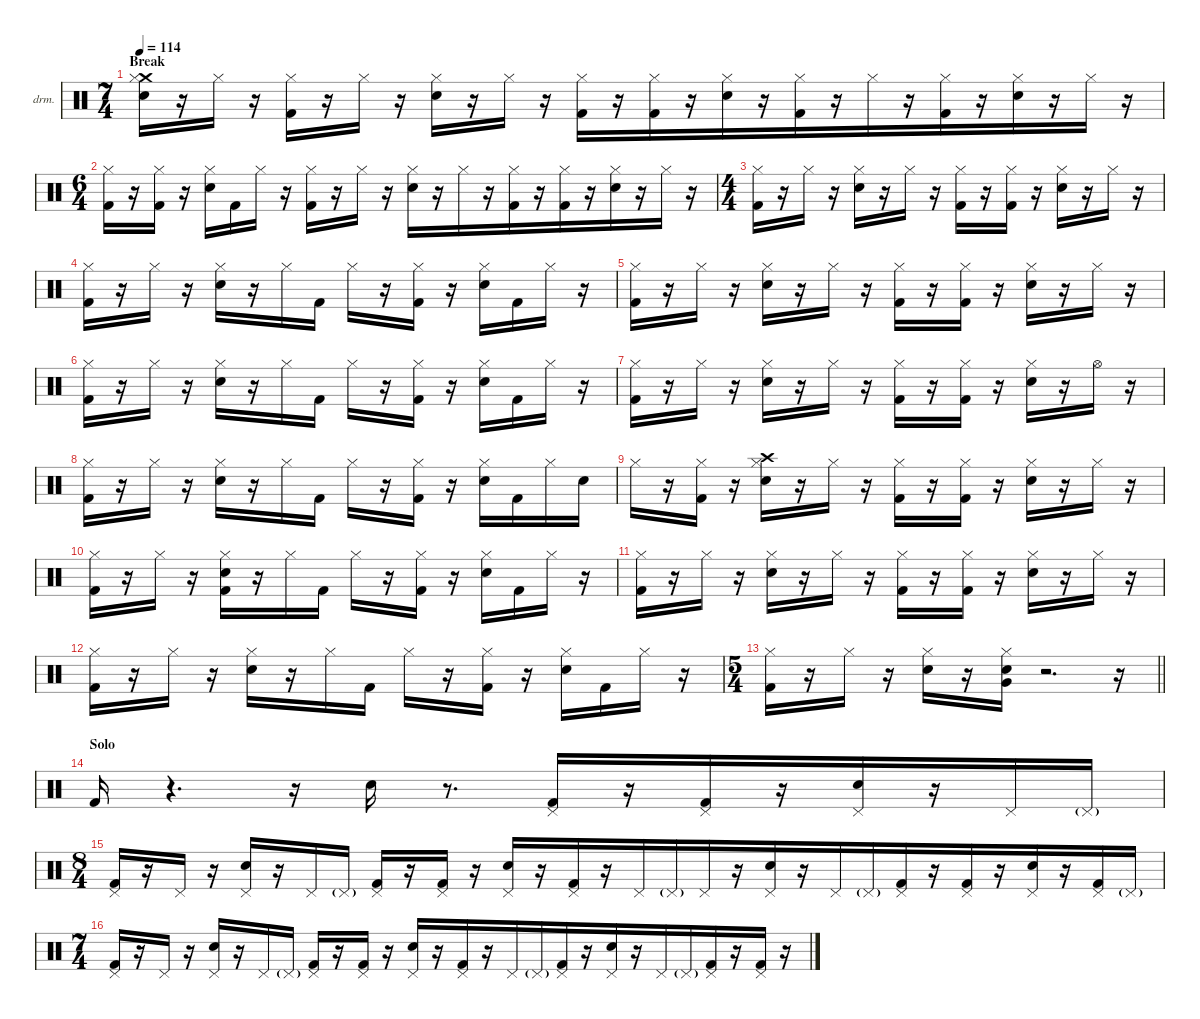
\defaultSystemsLayout 4
\hideDynamics
\bracketExtendMode nobrackets
\firstSystemTrackNameOrientation horizontal
\otherSystemsTrackNameOrientation horizontal
\track ("Drums" "drm.") {instrument percussion}
\staff {score}
\articulation defaults
\ts (7 4)
\beaming (8 2 2 2 8)
\section ("" "Break")
\tempo 114
\clef neutral
\ks c
("Crash medium (hit)" "Hi-Hat (closed)" "Snare (hit) 2").16{dy f beam Down} r.16{beam Down} "Hi-Hat (closed)".16{beam Down} r.16{beam Down} ("Hi-Hat (closed)" "Kick (hit) 2").16{beam Down} r.16{beam Down} "Hi-Hat (closed)".16{beam Down} r.16{beam Down} ("Hi-Hat (closed)" "Snare (hit) 2").16{beam Down} r.16{beam Down} "Hi-Hat (closed)".16{beam Down} r.16{beam Down} ("Hi-Hat (closed)" "Kick (hit) 2").16{beam Down} r.16{beam Down} ("Hi-Hat (closed)" "Kick (hit) 2").16{beam Down} r.16{beam Down} ("Hi-Hat (closed)" "Snare (hit) 2").16{beam Down} r.16{beam Down} ("Hi-Hat (closed)" "Kick (hit) 2").16{beam Down} r.16{beam Down} "Hi-Hat (closed)".16{beam Down} r.16{beam Down} ("Hi-Hat (closed)" "Kick (hit) 2").16{beam Down} r.16{beam Down} ("Hi-Hat (closed)" "Snare (hit) 2").16{beam Down} r.16{beam Down} "Hi-Hat (closed)".16{beam Down} r.16{beam Down} |
\ts (6 4)
\beaming (8 2 2 2 6)
("Hi-Hat (closed)" "Kick (hit) 2").16{beam Down} r.16{beam Down} ("Hi-Hat (closed)" "Kick (hit) 2").16{beam Down} r.16{beam Down} ("Hi-Hat (closed)" "Snare (hit) 2").16{beam Down} "Kick (hit) 2".16{beam Down} "Hi-Hat (closed)".16{beam Down} r.16{beam Down} ("Hi-Hat (closed)" "Kick (hit) 2").16{beam Down} r.16{beam Down} "Hi-Hat (closed)".16{beam Down} r.16{beam Down} ("Hi-Hat (closed)" "Snare (hit) 2").16{beam Down} r.16{beam Down} "Hi-Hat (closed)".16{beam Down} r.16{beam Down} ("Hi-Hat (closed)" "Kick (hit) 2").16{beam Down} r.16{beam Down} ("Hi-Hat (closed)" "Kick (hit) 2").16{beam Down} r.16{beam Down} ("Hi-Hat (closed)" "Snare (hit) 2").16{beam Down} r.16{beam Down} "Hi-Hat (closed)".16{beam Down} r.16{beam Down} |
\ts (4 4)
\beaming (8 2 2 2 2)
("Hi-Hat (closed)" "Kick (hit) 2").16{beam Down} r.16{beam Down} "Hi-Hat (closed)".16{beam Down} r.16{beam Down} ("Hi-Hat (closed)" "Snare (hit) 2").16{beam Down} r.16{beam Down} "Hi-Hat (closed)".16{beam Down} r.16{beam Down} ("Hi-Hat (closed)" "Kick (hit) 2").16{beam Down} r.16{beam Down} ("Hi-Hat (closed)" "Kick (hit) 2").16{beam Down} r.16{beam Down} ("Hi-Hat (closed)" "Snare (hit) 2").16{beam Down} r.16{beam Down} "Hi-Hat (closed)".16{beam Down} r.16{beam Down} |
("Hi-Hat (closed)" "Kick (hit) 2").16{beam Down} r.16{beam Down} "Hi-Hat (closed)".16{beam Down} r.16{beam Down} ("Hi-Hat (closed)" "Snare (hit) 2").16{beam Down} r.16{beam Down} "Hi-Hat (closed)".16{beam Down} "Kick (hit) 2".16{beam Down} "Hi-Hat (closed)".16{beam Down} r.16{beam Down} ("Hi-Hat (closed)" "Kick (hit) 2").16{beam Down} r.16{beam Down} ("Hi-Hat (closed)" "Snare (hit) 2").16{beam Down} "Kick (hit) 2".16{beam Down} "Hi-Hat (closed)".16{beam Down} r.16{beam Down} |
("Hi-Hat (closed)" "Kick (hit) 2").16{beam Down} r.16{beam Down} "Hi-Hat (closed)".16{beam Down} r.16{beam Down} ("Hi-Hat (closed)" "Snare (hit) 2").16{beam Down} r.16{beam Down} "Hi-Hat (closed)".16{beam Down} r.16{beam Down} ("Hi-Hat (closed)" "Kick (hit) 2").16{beam Down} r.16{beam Down} ("Hi-Hat (closed)" "Kick (hit) 2").16{beam Down} r.16{beam Down} ("Hi-Hat (closed)" "Snare (hit) 2").16{beam Down} r.16{beam Down} "Hi-Hat (closed)".16{beam Down} r.16{beam Down} |
("Hi-Hat (closed)" "Kick (hit) 2").16{beam Down} r.16{beam Down} "Hi-Hat (closed)".16{beam Down} r.16{beam Down} ("Hi-Hat (closed)" "Snare (hit) 2").16{beam Down} r.16{beam Down} "Hi-Hat (closed)".16{beam Down} "Kick (hit) 2".16{beam Down} "Hi-Hat (closed)".16{beam Down} r.16{beam Down} ("Hi-Hat (closed)" "Kick (hit) 2").16{beam Down} r.16{beam Down} ("Hi-Hat (closed)" "Snare (hit) 2").16{beam Down} "Kick (hit) 2".16{beam Down} "Hi-Hat (closed)".16{beam Down} r.16{beam Down} |
("Hi-Hat (closed)" "Kick (hit) 2").16{beam Down} r.16{beam Down} "Hi-Hat (closed)".16{beam Down} r.16{beam Down} ("Hi-Hat (closed)" "Snare (hit) 2").16{beam Down} r.16{beam Down} "Hi-Hat (closed)".16{beam Down} r.16{beam Down} ("Hi-Hat (closed)" "Kick (hit) 2").16{beam Down} r.16{beam Down} ("Hi-Hat (closed)" "Kick (hit) 2").16{beam Down} r.16{beam Down} ("Hi-Hat (closed)" "Snare (hit) 2").16{beam Down} r.16{beam Down} "Hi-Hat (open)".16{beam Down} r.16{beam Down} |
("Hi-Hat (closed)" "Kick (hit) 2").16{beam Down} r.16{beam Down} "Hi-Hat (closed)".16{beam Down} r.16{beam Down} ("Hi-Hat (closed)" "Snare (hit) 2").16{beam Down} r.16{beam Down} "Hi-Hat (closed)".16{beam Down} "Kick (hit) 2".16{beam Down} "Hi-Hat (closed)".16{beam Down} r.16{beam Down} ("Hi-Hat (closed)" "Kick (hit) 2").16{beam Down} r.16{beam Down} ("Hi-Hat (closed)" "Snare (hit) 2").16{beam Down} "Kick (hit) 2".16{beam Down} "Hi-Hat (closed)".16{beam Down} "Snare (hit) 2".16{beam Down} |
"Hi-Hat (closed)".16{beam Down} r.16{beam Down} ("Hi-Hat (closed)" "Kick (hit) 2").16{beam Down} r.16{beam Down} ("Crash high (hit)" "Hi-Hat (closed)" "Snare (hit) 2").16{beam Down} r.16{beam Down} "Hi-Hat (closed)".16{beam Down} r.16{beam Down} ("Hi-Hat (closed)" "Kick (hit) 2").16{beam Down} r.16{beam Down} ("Hi-Hat (closed)" "Kick (hit) 2").16{beam Down} r.16{beam Down} ("Hi-Hat (closed)" "Snare (hit) 2").16{beam Down} r.16{beam Down} "Hi-Hat (closed)".16{beam Down} r.16{beam Down} |
("Hi-Hat (closed)" "Kick (hit) 2").16{beam Down} r.16{beam Down} "Hi-Hat (closed)".16{beam Down} r.16{beam Down} ("Hi-Hat (closed)" "Snare (hit) 2" "Kick (hit) 2").16{beam Down} r.16{beam Down} "Hi-Hat (closed)".16{beam Down} "Kick (hit) 2".16{beam Down} "Hi-Hat (closed)".16{beam Down} r.16{beam Down} ("Hi-Hat (closed)" "Kick (hit) 2").16{beam Down} r.16{beam Down} ("Hi-Hat (closed)" "Snare (hit) 2").16{beam Down} "Kick (hit) 2".16{beam Down} "Hi-Hat (closed)".16{beam Down} r.16{beam Down} |
("Hi-Hat (closed)" "Kick (hit) 2").16{beam Down} r.16{beam Down} "Hi-Hat (closed)".16{beam Down} r.16{beam Down} ("Hi-Hat (closed)" "Snare (hit) 2").16{beam Down} r.16{beam Down} "Hi-Hat (closed)".16{beam Down} r.16{beam Down} ("Hi-Hat (closed)" "Kick (hit) 2").16{beam Down} r.16{beam Down} ("Hi-Hat (closed)" "Kick (hit) 2").16{beam Down} r.16{beam Down} ("Hi-Hat (closed)" "Snare (hit) 2").16{beam Down} r.16{beam Down} "Hi-Hat (closed)".16{beam Down} r.16{beam Down} |
("Hi-Hat (closed)" "Kick (hit) 2").16{beam Down} r.16{beam Down} "Hi-Hat (closed)".16{beam Down} r.16{beam Down} ("Hi-Hat (closed)" "Snare (hit) 2").16{beam Down} r.16{beam Down} "Hi-Hat (closed)".16{beam Down} "Kick (hit) 2".16{beam Down} "Hi-Hat (closed)".16{beam Down} r.16{beam Down} ("Hi-Hat (closed)" "Kick (hit) 2").16{beam Down} r.16{beam Down} ("Hi-Hat (closed)" "Snare (hit) 2").16{beam Down} "Kick (hit) 2".16{beam Down} "Hi-Hat (closed)".16{beam Down} r.16{beam Down} |
\ts (5 4)
\beaming (8 2 2 2 4)
\barLineRight lightlight
("Hi-Hat (closed)" "Kick (hit) 2").16{beam Down} r.16{beam Down} "Hi-Hat (closed)".16{beam Down} r.16{beam Down} ("Hi-Hat (closed)" "Snare (hit) 2").16{beam Down} r.16{beam Down} ("Hi-Hat (closed)" "Very Low Tom (hit)" "Snare (hit) 2").16{beam Down} r.2{d beam Down} r.16{beam Down} |
\section ("" "Solo")
"Kick (hit) 2".16{beam Up} r.4{d beam Up} r.16{beam Up} "Snare (hit) 2".16{beam Down} r.8{d beam Down} ("Pedal Hi-Hat (hit)" "Kick (hit) 2").16{beam Up} r.16{beam Up} ("Pedal Hi-Hat (hit)" "Kick (hit) 2").16{beam Up} r.16{beam Up} ("Pedal Hi-Hat (hit)" "Snare (hit) 2").16{beam Up} r.16{beam Up} "Pedal Hi-Hat (hit)".16{beam Up} "Pedal Hi-Hat (hit)"{g}.16{dy mf beam Up} |
\ts (8 4)
\beaming (8 2 2 2 10)
("Pedal Hi-Hat (hit)" "Kick (hit) 2").16{dy f beam Up} r.16{beam Up} "Pedal Hi-Hat (hit)".16{beam Up} r.16{beam Up} ("Pedal Hi-Hat (hit)" "Snare (hit) 2").16{beam Up} r.16{beam Up} "Pedal Hi-Hat (hit)".16{beam Up} "Pedal Hi-Hat (hit)"{g}.16{dy mf beam Up} ("Pedal Hi-Hat (hit)" "Kick (hit) 2").16{dy f beam Up} r.16{beam Up} ("Pedal Hi-Hat (hit)" "Kick (hit) 2").16{beam Up} r.16{beam Up} ("Pedal Hi-Hat (hit)" "Snare (hit) 2").16{beam Up} r.16{beam Up} ("Pedal Hi-Hat (hit)" "Kick (hit) 2").16{beam Up} r.16{beam Up} "Pedal Hi-Hat (hit)".16{beam Up} "Pedal Hi-Hat (hit)"{g}.16{dy mf beam Up} "Pedal Hi-Hat (hit)".16{dy f beam Up} r.16{beam Up} ("Pedal Hi-Hat (hit)" "Snare (hit) 2").16{beam Up} r.16{beam Up} "Pedal Hi-Hat (hit)".16{beam Up} "Pedal Hi-Hat (hit)"{g}.16{dy mf beam Up} ("Pedal Hi-Hat (hit)" "Kick (hit) 2").16{dy f beam Up} r.16{beam Up} ("Pedal Hi-Hat (hit)" "Kick (hit) 2").16{beam Up} r.16{beam Up} ("Pedal Hi-Hat (hit)" "Snare (hit) 2").16{beam Up} r.16{beam Up} ("Pedal Hi-Hat (hit)" "Kick (hit) 2").16{beam Up} "Pedal Hi-Hat (hit)"{g}.16{dy mf beam Up} |
\ts (7 4)
\beaming (8 2 2 2 8)
("Pedal Hi-Hat (hit)" "Kick (hit) 2").16{dy f beam Up} r.16{beam Up} "Pedal Hi-Hat (hit)".16{beam Up} r.16{beam Up} ("Pedal Hi-Hat (hit)" "Snare (hit) 2").16{beam Up} r.16{beam Up} "Pedal Hi-Hat (hit)".16{beam Up} "Pedal Hi-Hat (hit)"{g}.16{dy mf beam Up} ("Pedal Hi-Hat (hit)" "Kick (hit) 2").16{dy f beam Up} r.16{beam Up} ("Pedal Hi-Hat (hit)" "Kick (hit) 2").16{beam Up} r.16{beam Up} ("Pedal Hi-Hat (hit)" "Snare (hit) 2").16{beam Up} r.16{beam Up} ("Pedal Hi-Hat (hit)" "Kick (hit) 2").16{beam Up} r.16{beam Up} "Pedal Hi-Hat (hit)".16{beam Up} "Pedal Hi-Hat (hit)"{g}.16{dy mf beam Up} ("Pedal Hi-Hat (hit)" "Kick (hit) 2").16{dy f beam Up} r.16{beam Up} ("Pedal Hi-Hat (hit)" "Snare (hit) 2").16{beam Up} r.16{beam Up} "Pedal Hi-Hat (hit)".16{beam Up} "Pedal Hi-Hat (hit)"{g}.16{dy mf beam Up} ("Pedal Hi-Hat (hit)" "Kick (hit) 2").16{dy f beam Up} r.16{beam Up} ("Pedal Hi-Hat (hit)" "Kick (hit) 2").16{beam Up} r.16{beam Up}
